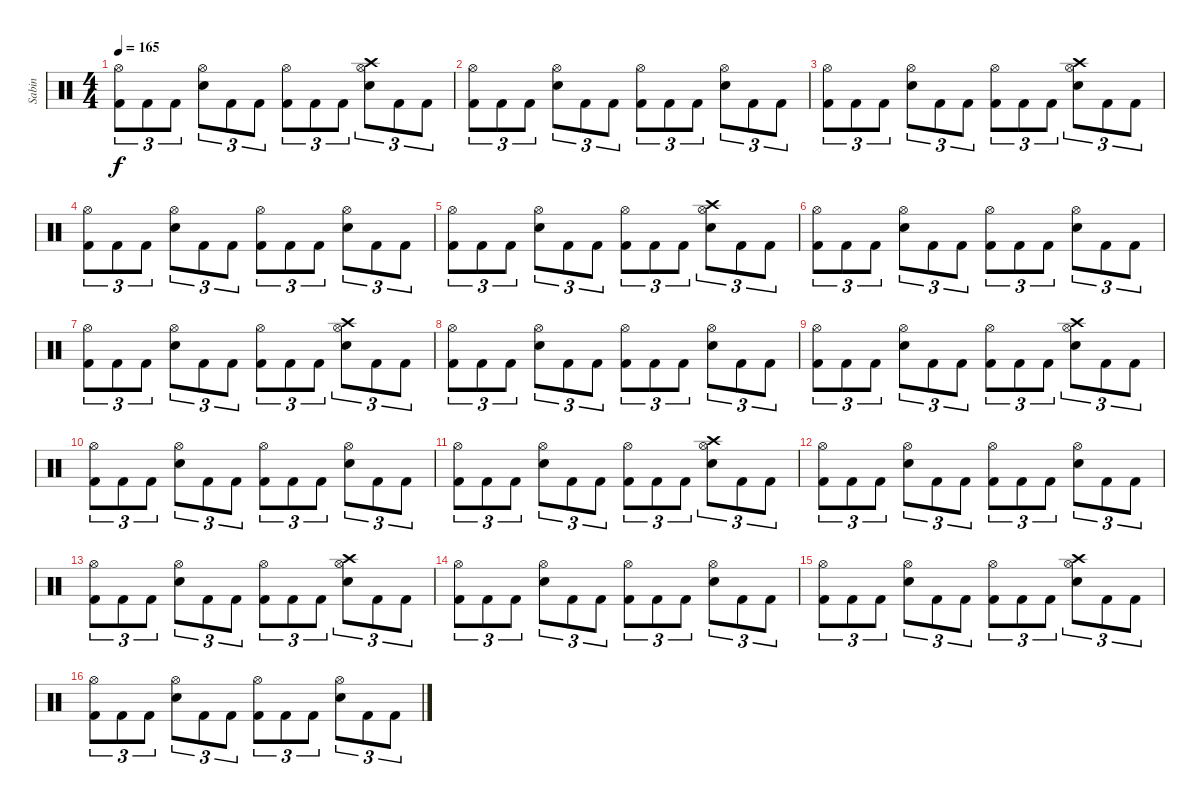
\track ("Sabin" "Sabin") {instrument percussion}
\staff {score}
\articulation defaults
\ts (4 4)
\tempo 165
\clef neutral
\ks c
("Hi-Hat (open)" "Kick (hit) 2").8{tu (3 2) dy f} "Kick (hit) 2".8{tu (3 2)} "Kick (hit) 2".8{tu (3 2)} ("Snare (hit) 2" "Hi-Hat (open)").8{tu (3 2)} "Kick (hit) 2".8{tu (3 2)} "Kick (hit) 2".8{tu (3 2)} ("Hi-Hat (open)" "Kick (hit) 2").8{tu (3 2)} "Kick (hit) 2".8{tu (3 2)} "Kick (hit) 2".8{tu (3 2)} ("Crash high (hit)" "Snare (hit) 2" "Hi-Hat (open)").8{tu (3 2)} "Kick (hit) 2".8{tu (3 2)} "Kick (hit) 2".8{tu (3 2)} |
("Hi-Hat (open)" "Kick (hit) 2").8{tu (3 2)} "Kick (hit) 2".8{tu (3 2)} "Kick (hit) 2".8{tu (3 2)} ("Snare (hit) 2" "Hi-Hat (open)").8{tu (3 2)} "Kick (hit) 2".8{tu (3 2)} "Kick (hit) 2".8{tu (3 2)} ("Hi-Hat (open)" "Kick (hit) 2").8{tu (3 2)} "Kick (hit) 2".8{tu (3 2)} "Kick (hit) 2".8{tu (3 2)} ("Snare (hit) 2" "Hi-Hat (open)").8{tu (3 2)} "Kick (hit) 2".8{tu (3 2)} "Kick (hit) 2".8{tu (3 2)} |
("Hi-Hat (open)" "Kick (hit) 2").8{tu (3 2)} "Kick (hit) 2".8{tu (3 2)} "Kick (hit) 2".8{tu (3 2)} ("Snare (hit) 2" "Hi-Hat (open)").8{tu (3 2)} "Kick (hit) 2".8{tu (3 2)} "Kick (hit) 2".8{tu (3 2)} ("Hi-Hat (open)" "Kick (hit) 2").8{tu (3 2)} "Kick (hit) 2".8{tu (3 2)} "Kick (hit) 2".8{tu (3 2)} ("Crash high (hit)" "Snare (hit) 2" "Hi-Hat (open)").8{tu (3 2)} "Kick (hit) 2".8{tu (3 2)} "Kick (hit) 2".8{tu (3 2)} |
("Hi-Hat (open)" "Kick (hit) 2").8{tu (3 2)} "Kick (hit) 2".8{tu (3 2)} "Kick (hit) 2".8{tu (3 2)} ("Snare (hit) 2" "Hi-Hat (open)").8{tu (3 2)} "Kick (hit) 2".8{tu (3 2)} "Kick (hit) 2".8{tu (3 2)} ("Hi-Hat (open)" "Kick (hit) 2").8{tu (3 2)} "Kick (hit) 2".8{tu (3 2)} "Kick (hit) 2".8{tu (3 2)} ("Snare (hit) 2" "Hi-Hat (open)").8{tu (3 2)} "Kick (hit) 2".8{tu (3 2)} "Kick (hit) 2".8{tu (3 2)} |
("Hi-Hat (open)" "Kick (hit) 2").8{tu (3 2)} "Kick (hit) 2".8{tu (3 2)} "Kick (hit) 2".8{tu (3 2)} ("Snare (hit) 2" "Hi-Hat (open)").8{tu (3 2)} "Kick (hit) 2".8{tu (3 2)} "Kick (hit) 2".8{tu (3 2)} ("Hi-Hat (open)" "Kick (hit) 2").8{tu (3 2)} "Kick (hit) 2".8{tu (3 2)} "Kick (hit) 2".8{tu (3 2)} ("Crash high (hit)" "Snare (hit) 2" "Hi-Hat (open)").8{tu (3 2)} "Kick (hit) 2".8{tu (3 2)} "Kick (hit) 2".8{tu (3 2)} |
("Hi-Hat (open)" "Kick (hit) 2").8{tu (3 2)} "Kick (hit) 2".8{tu (3 2)} "Kick (hit) 2".8{tu (3 2)} ("Snare (hit) 2" "Hi-Hat (open)").8{tu (3 2)} "Kick (hit) 2".8{tu (3 2)} "Kick (hit) 2".8{tu (3 2)} ("Hi-Hat (open)" "Kick (hit) 2").8{tu (3 2)} "Kick (hit) 2".8{tu (3 2)} "Kick (hit) 2".8{tu (3 2)} ("Snare (hit) 2" "Hi-Hat (open)").8{tu (3 2)} "Kick (hit) 2".8{tu (3 2)} "Kick (hit) 2".8{tu (3 2)} |
("Hi-Hat (open)" "Kick (hit) 2").8{tu (3 2)} "Kick (hit) 2".8{tu (3 2)} "Kick (hit) 2".8{tu (3 2)} ("Snare (hit) 2" "Hi-Hat (open)").8{tu (3 2)} "Kick (hit) 2".8{tu (3 2)} "Kick (hit) 2".8{tu (3 2)} ("Hi-Hat (open)" "Kick (hit) 2").8{tu (3 2)} "Kick (hit) 2".8{tu (3 2)} "Kick (hit) 2".8{tu (3 2)} ("Crash high (hit)" "Snare (hit) 2" "Hi-Hat (open)").8{tu (3 2)} "Kick (hit) 2".8{tu (3 2)} "Kick (hit) 2".8{tu (3 2)} |
("Hi-Hat (open)" "Kick (hit) 2").8{tu (3 2)} "Kick (hit) 2".8{tu (3 2)} "Kick (hit) 2".8{tu (3 2)} ("Snare (hit) 2" "Hi-Hat (open)").8{tu (3 2)} "Kick (hit) 2".8{tu (3 2)} "Kick (hit) 2".8{tu (3 2)} ("Hi-Hat (open)" "Kick (hit) 2").8{tu (3 2)} "Kick (hit) 2".8{tu (3 2)} "Kick (hit) 2".8{tu (3 2)} ("Snare (hit) 2" "Hi-Hat (open)").8{tu (3 2)} "Kick (hit) 2".8{tu (3 2)} "Kick (hit) 2".8{tu (3 2)} |
("Hi-Hat (open)" "Kick (hit) 2").8{tu (3 2)} "Kick (hit) 2".8{tu (3 2)} "Kick (hit) 2".8{tu (3 2)} ("Snare (hit) 2" "Hi-Hat (open)").8{tu (3 2)} "Kick (hit) 2".8{tu (3 2)} "Kick (hit) 2".8{tu (3 2)} ("Hi-Hat (open)" "Kick (hit) 2").8{tu (3 2)} "Kick (hit) 2".8{tu (3 2)} "Kick (hit) 2".8{tu (3 2)} ("Crash high (hit)" "Snare (hit) 2" "Hi-Hat (open)").8{tu (3 2)} "Kick (hit) 2".8{tu (3 2)} "Kick (hit) 2".8{tu (3 2)} |
("Hi-Hat (open)" "Kick (hit) 2").8{tu (3 2)} "Kick (hit) 2".8{tu (3 2)} "Kick (hit) 2".8{tu (3 2)} ("Snare (hit) 2" "Hi-Hat (open)").8{tu (3 2)} "Kick (hit) 2".8{tu (3 2)} "Kick (hit) 2".8{tu (3 2)} ("Hi-Hat (open)" "Kick (hit) 2").8{tu (3 2)} "Kick (hit) 2".8{tu (3 2)} "Kick (hit) 2".8{tu (3 2)} ("Snare (hit) 2" "Hi-Hat (open)").8{tu (3 2)} "Kick (hit) 2".8{tu (3 2)} "Kick (hit) 2".8{tu (3 2)} |
("Hi-Hat (open)" "Kick (hit) 2").8{tu (3 2)} "Kick (hit) 2".8{tu (3 2)} "Kick (hit) 2".8{tu (3 2)} ("Snare (hit) 2" "Hi-Hat (open)").8{tu (3 2)} "Kick (hit) 2".8{tu (3 2)} "Kick (hit) 2".8{tu (3 2)} ("Hi-Hat (open)" "Kick (hit) 2").8{tu (3 2)} "Kick (hit) 2".8{tu (3 2)} "Kick (hit) 2".8{tu (3 2)} ("Crash high (hit)" "Snare (hit) 2" "Hi-Hat (open)").8{tu (3 2)} "Kick (hit) 2".8{tu (3 2)} "Kick (hit) 2".8{tu (3 2)} |
("Hi-Hat (open)" "Kick (hit) 2").8{tu (3 2)} "Kick (hit) 2".8{tu (3 2)} "Kick (hit) 2".8{tu (3 2)} ("Snare (hit) 2" "Hi-Hat (open)").8{tu (3 2)} "Kick (hit) 2".8{tu (3 2)} "Kick (hit) 2".8{tu (3 2)} ("Hi-Hat (open)" "Kick (hit) 2").8{tu (3 2)} "Kick (hit) 2".8{tu (3 2)} "Kick (hit) 2".8{tu (3 2)} ("Snare (hit) 2" "Hi-Hat (open)").8{tu (3 2)} "Kick (hit) 2".8{tu (3 2)} "Kick (hit) 2".8{tu (3 2)} |
("Hi-Hat (open)" "Kick (hit) 2").8{tu (3 2)} "Kick (hit) 2".8{tu (3 2)} "Kick (hit) 2".8{tu (3 2)} ("Snare (hit) 2" "Hi-Hat (open)").8{tu (3 2)} "Kick (hit) 2".8{tu (3 2)} "Kick (hit) 2".8{tu (3 2)} ("Hi-Hat (open)" "Kick (hit) 2").8{tu (3 2)} "Kick (hit) 2".8{tu (3 2)} "Kick (hit) 2".8{tu (3 2)} ("Crash high (hit)" "Snare (hit) 2" "Hi-Hat (open)").8{tu (3 2)} "Kick (hit) 2".8{tu (3 2)} "Kick (hit) 2".8{tu (3 2)} |
("Hi-Hat (open)" "Kick (hit) 2").8{tu (3 2)} "Kick (hit) 2".8{tu (3 2)} "Kick (hit) 2".8{tu (3 2)} ("Snare (hit) 2" "Hi-Hat (open)").8{tu (3 2)} "Kick (hit) 2".8{tu (3 2)} "Kick (hit) 2".8{tu (3 2)} ("Hi-Hat (open)" "Kick (hit) 2").8{tu (3 2)} "Kick (hit) 2".8{tu (3 2)} "Kick (hit) 2".8{tu (3 2)} ("Snare (hit) 2" "Hi-Hat (open)").8{tu (3 2)} "Kick (hit) 2".8{tu (3 2)} "Kick (hit) 2".8{tu (3 2)} |
("Hi-Hat (open)" "Kick (hit) 2").8{tu (3 2)} "Kick (hit) 2".8{tu (3 2)} "Kick (hit) 2".8{tu (3 2)} ("Snare (hit) 2" "Hi-Hat (open)").8{tu (3 2)} "Kick (hit) 2".8{tu (3 2)} "Kick (hit) 2".8{tu (3 2)} ("Hi-Hat (open)" "Kick (hit) 2").8{tu (3 2)} "Kick (hit) 2".8{tu (3 2)} "Kick (hit) 2".8{tu (3 2)} ("Crash high (hit)" "Snare (hit) 2" "Hi-Hat (open)").8{tu (3 2)} "Kick (hit) 2".8{tu (3 2)} "Kick (hit) 2".8{tu (3 2)} |
("Hi-Hat (open)" "Kick (hit) 2").8{tu (3 2)} "Kick (hit) 2".8{tu (3 2)} "Kick (hit) 2".8{tu (3 2)} ("Snare (hit) 2" "Hi-Hat (open)").8{tu (3 2)} "Kick (hit) 2".8{tu (3 2)} "Kick (hit) 2".8{tu (3 2)} ("Hi-Hat (open)" "Kick (hit) 2").8{tu (3 2)} "Kick (hit) 2".8{tu (3 2)} "Kick (hit) 2".8{tu (3 2)} ("Snare (hit) 2" "Hi-Hat (open)").8{tu (3 2)} "Kick (hit) 2".8{tu (3 2)} "Kick (hit) 2".8{tu (3 2)}
